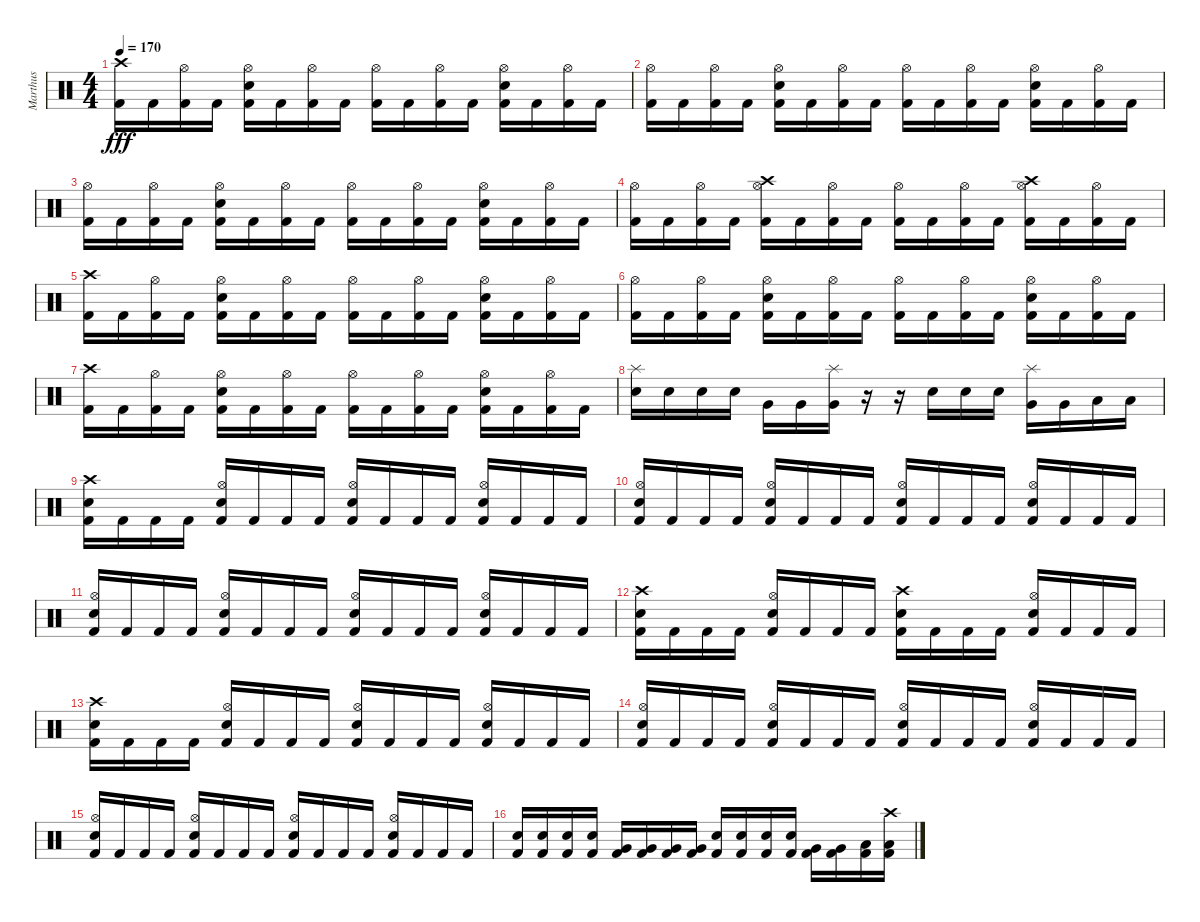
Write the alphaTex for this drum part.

\track ("Marthus" "Marthus") {instrument percussion}
\staff {score}
\articulation defaults
\ts (4 4)
\tempo 170
\clef neutral
\ks c
("Crash high (hit)" "Kick (hit) 2").16{dy fff} "Kick (hit) 2".16 ("Hi-Hat (open)" "Kick (hit) 2").16 "Kick (hit) 2".16 ("Hi-Hat (open)" "Electric Snare (hit)" "Kick (hit) 2").16 "Kick (hit) 2".16 ("Hi-Hat (open)" "Kick (hit) 2").16 "Kick (hit) 2".16 ("Hi-Hat (open)" "Kick (hit) 2").16 "Kick (hit) 2".16 ("Hi-Hat (open)" "Kick (hit) 2").16 "Kick (hit) 2".16 ("Hi-Hat (open)" "Electric Snare (hit)" "Kick (hit) 2").16 "Kick (hit) 2".16 ("Hi-Hat (open)" "Kick (hit) 2").16 "Kick (hit) 2".16 |
("Hi-Hat (open)" "Kick (hit) 2").16 "Kick (hit) 2".16 ("Hi-Hat (open)" "Kick (hit) 2").16 "Kick (hit) 2".16 ("Hi-Hat (open)" "Electric Snare (hit)" "Kick (hit) 2").16 "Kick (hit) 2".16 ("Hi-Hat (open)" "Kick (hit) 2").16 "Kick (hit) 2".16 ("Hi-Hat (open)" "Kick (hit) 2").16 "Kick (hit) 2".16 ("Hi-Hat (open)" "Kick (hit) 2").16 "Kick (hit) 2".16 ("Hi-Hat (open)" "Electric Snare (hit)" "Kick (hit) 2").16 "Kick (hit) 2".16 ("Hi-Hat (open)" "Kick (hit) 2").16 "Kick (hit) 2".16 |
("Hi-Hat (open)" "Kick (hit) 2").16 "Kick (hit) 2".16 ("Hi-Hat (open)" "Kick (hit) 2").16 "Kick (hit) 2".16 ("Hi-Hat (open)" "Electric Snare (hit)" "Kick (hit) 2").16 "Kick (hit) 2".16 ("Hi-Hat (open)" "Kick (hit) 2").16 "Kick (hit) 2".16 ("Hi-Hat (open)" "Kick (hit) 2").16 "Kick (hit) 2".16 ("Hi-Hat (open)" "Kick (hit) 2").16 "Kick (hit) 2".16 ("Hi-Hat (open)" "Electric Snare (hit)" "Kick (hit) 2").16 "Kick (hit) 2".16 ("Hi-Hat (open)" "Kick (hit) 2").16 "Kick (hit) 2".16 |
("Hi-Hat (open)" "Kick (hit) 2").16 "Kick (hit) 2".16 ("Hi-Hat (open)" "Kick (hit) 2").16 "Kick (hit) 2".16 ("Crash high (hit)" "Hi-Hat (open)" "Kick (hit) 2").16 "Kick (hit) 2".16 ("Hi-Hat (open)" "Kick (hit) 2").16 "Kick (hit) 2".16 ("Hi-Hat (open)" "Kick (hit) 2").16 "Kick (hit) 2".16 ("Hi-Hat (open)" "Kick (hit) 2").16 "Kick (hit) 2".16 ("Crash high (hit)" "Hi-Hat (open)" "Kick (hit) 2").16 "Kick (hit) 2".16 ("Hi-Hat (open)" "Kick (hit) 2").16 "Kick (hit) 2".16 |
("Crash high (hit)" "Kick (hit) 2").16 "Kick (hit) 2".16 ("Hi-Hat (open)" "Kick (hit) 2").16 "Kick (hit) 2".16 ("Hi-Hat (open)" "Electric Snare (hit)" "Kick (hit) 2").16 "Kick (hit) 2".16 ("Hi-Hat (open)" "Kick (hit) 2").16 "Kick (hit) 2".16 ("Hi-Hat (open)" "Kick (hit) 2").16 "Kick (hit) 2".16 ("Hi-Hat (open)" "Kick (hit) 2").16 "Kick (hit) 2".16 ("Hi-Hat (open)" "Electric Snare (hit)" "Kick (hit) 2").16 "Kick (hit) 2".16 ("Hi-Hat (open)" "Kick (hit) 2").16 "Kick (hit) 2".16 |
("Hi-Hat (open)" "Kick (hit) 2").16 "Kick (hit) 2".16 ("Hi-Hat (open)" "Kick (hit) 2").16 "Kick (hit) 2".16 ("Hi-Hat (open)" "Electric Snare (hit)" "Kick (hit) 2").16 "Kick (hit) 2".16 ("Hi-Hat (open)" "Kick (hit) 2").16 "Kick (hit) 2".16 ("Hi-Hat (open)" "Kick (hit) 2").16 "Kick (hit) 2".16 ("Hi-Hat (open)" "Kick (hit) 2").16 "Kick (hit) 2".16 ("Hi-Hat (open)" "Electric Snare (hit)" "Kick (hit) 2").16 "Kick (hit) 2".16 ("Hi-Hat (open)" "Kick (hit) 2").16 "Kick (hit) 2".16 |
("Crash high (hit)" "Kick (hit) 2").16 "Kick (hit) 2".16 ("Hi-Hat (open)" "Kick (hit) 2").16 "Kick (hit) 2".16 ("Hi-Hat (open)" "Electric Snare (hit)" "Kick (hit) 2").16 "Kick (hit) 2".16 ("Hi-Hat (open)" "Kick (hit) 2").16 "Kick (hit) 2".16 ("Hi-Hat (open)" "Kick (hit) 2").16 "Kick (hit) 2".16 ("Hi-Hat (open)" "Kick (hit) 2").16 "Kick (hit) 2".16 ("Hi-Hat (open)" "Electric Snare (hit)" "Kick (hit) 2").16 "Kick (hit) 2".16 ("Hi-Hat (open)" "Kick (hit) 2").16 "Kick (hit) 2".16 |
("Splash (hit)" "Electric Snare (hit)").16 "Electric Snare (hit)".16 "Electric Snare (hit)".16 "Electric Snare (hit)".16 "Very Low Tom (hit)".16 "Very Low Tom (hit)".16 ("Splash (hit)" "Very Low Tom (hit)").16 r.16 r.16 "Electric Snare (hit)".16 "Electric Snare (hit)".16 "Electric Snare (hit)".16 ("Splash (hit)" "Very Low Tom (hit)").16 "Very Low Tom (hit)".16 "Low Tom (hit)".16 "Low Tom (hit)".16 |
("Crash high (hit)" "Electric Snare (hit)" "Kick (hit) 2").16 "Kick (hit) 2".16 "Kick (hit) 2".16 "Kick (hit) 2".16 ("Hi-Hat (open)" "Electric Snare (hit)" "Kick (hit) 2").16 "Kick (hit) 2".16 "Kick (hit) 2".16 "Kick (hit) 2".16 ("Hi-Hat (open)" "Electric Snare (hit)" "Kick (hit) 2").16 "Kick (hit) 2".16 "Kick (hit) 2".16 "Kick (hit) 2".16 ("Hi-Hat (open)" "Electric Snare (hit)" "Kick (hit) 2").16 "Kick (hit) 2".16 "Kick (hit) 2".16 "Kick (hit) 2".16 |
("Hi-Hat (open)" "Electric Snare (hit)" "Kick (hit) 2").16 "Kick (hit) 2".16 "Kick (hit) 2".16 "Kick (hit) 2".16 ("Hi-Hat (open)" "Electric Snare (hit)" "Kick (hit) 2").16 "Kick (hit) 2".16 "Kick (hit) 2".16 "Kick (hit) 2".16 ("Hi-Hat (open)" "Electric Snare (hit)" "Kick (hit) 2").16 "Kick (hit) 2".16 "Kick (hit) 2".16 "Kick (hit) 2".16 ("Hi-Hat (open)" "Electric Snare (hit)" "Kick (hit) 2").16 "Kick (hit) 2".16 "Kick (hit) 2".16 "Kick (hit) 2".16 |
("Hi-Hat (open)" "Electric Snare (hit)" "Kick (hit) 2").16 "Kick (hit) 2".16 "Kick (hit) 2".16 "Kick (hit) 2".16 ("Hi-Hat (open)" "Electric Snare (hit)" "Kick (hit) 2").16 "Kick (hit) 2".16 "Kick (hit) 2".16 "Kick (hit) 2".16 ("Hi-Hat (open)" "Electric Snare (hit)" "Kick (hit) 2").16 "Kick (hit) 2".16 "Kick (hit) 2".16 "Kick (hit) 2".16 ("Hi-Hat (open)" "Electric Snare (hit)" "Kick (hit) 2").16 "Kick (hit) 2".16 "Kick (hit) 2".16 "Kick (hit) 2".16 |
("Crash high (hit)" "Electric Snare (hit)" "Kick (hit) 2").16 "Kick (hit) 2".16 "Kick (hit) 2".16 "Kick (hit) 2".16 ("Hi-Hat (open)" "Electric Snare (hit)" "Kick (hit) 2").16 "Kick (hit) 2".16 "Kick (hit) 2".16 "Kick (hit) 2".16 ("Crash high (hit)" "Electric Snare (hit)" "Kick (hit) 2").16 "Kick (hit) 2".16 "Kick (hit) 2".16 "Kick (hit) 2".16 ("Hi-Hat (open)" "Electric Snare (hit)" "Kick (hit) 2").16 "Kick (hit) 2".16 "Kick (hit) 2".16 "Kick (hit) 2".16 |
("Crash high (hit)" "Electric Snare (hit)" "Kick (hit) 2").16 "Kick (hit) 2".16 "Kick (hit) 2".16 "Kick (hit) 2".16 ("Hi-Hat (open)" "Electric Snare (hit)" "Kick (hit) 2").16 "Kick (hit) 2".16 "Kick (hit) 2".16 "Kick (hit) 2".16 ("Hi-Hat (open)" "Electric Snare (hit)" "Kick (hit) 2").16 "Kick (hit) 2".16 "Kick (hit) 2".16 "Kick (hit) 2".16 ("Hi-Hat (open)" "Electric Snare (hit)" "Kick (hit) 2").16 "Kick (hit) 2".16 "Kick (hit) 2".16 "Kick (hit) 2".16 |
("Hi-Hat (open)" "Electric Snare (hit)" "Kick (hit) 2").16 "Kick (hit) 2".16 "Kick (hit) 2".16 "Kick (hit) 2".16 ("Hi-Hat (open)" "Electric Snare (hit)" "Kick (hit) 2").16 "Kick (hit) 2".16 "Kick (hit) 2".16 "Kick (hit) 2".16 ("Hi-Hat (open)" "Electric Snare (hit)" "Kick (hit) 2").16 "Kick (hit) 2".16 "Kick (hit) 2".16 "Kick (hit) 2".16 ("Hi-Hat (open)" "Electric Snare (hit)" "Kick (hit) 2").16 "Kick (hit) 2".16 "Kick (hit) 2".16 "Kick (hit) 2".16 |
("Hi-Hat (open)" "Electric Snare (hit)" "Kick (hit) 2").16 "Kick (hit) 2".16 "Kick (hit) 2".16 "Kick (hit) 2".16 ("Hi-Hat (open)" "Electric Snare (hit)" "Kick (hit) 2").16 "Kick (hit) 2".16 "Kick (hit) 2".16 "Kick (hit) 2".16 ("Hi-Hat (open)" "Electric Snare (hit)" "Kick (hit) 2").16 "Kick (hit) 2".16 "Kick (hit) 2".16 "Kick (hit) 2".16 ("Hi-Hat (open)" "Electric Snare (hit)" "Kick (hit) 2").16 "Kick (hit) 2".16 "Kick (hit) 2".16 "Kick (hit) 2".16 |
("Electric Snare (hit)" "Kick (hit) 2").16 ("Electric Snare (hit)" "Kick (hit) 2").16 ("Electric Snare (hit)" "Kick (hit) 2").16 ("Electric Snare (hit)" "Kick (hit) 2").16 ("Very Low Tom (hit)" "Kick (hit) 2").16 ("Very Low Tom (hit)" "Kick (hit) 2").16 ("Very Low Tom (hit)" "Kick (hit) 2").16 ("Very Low Tom (hit)" "Kick (hit) 2").16 ("Electric Snare (hit)" "Kick (hit) 2").16 ("Electric Snare (hit)" "Kick (hit) 2").16 ("Electric Snare (hit)" "Kick (hit) 2").16 ("Electric Snare (hit)" "Kick (hit) 2").16 ("Very Low Tom (hit)" "Kick (hit) 2").16 ("Very Low Tom (hit)" "Kick (hit) 2").16 ("Low Tom (hit)" "Kick (hit) 2").16 ("Crash high (hit)" "Low Tom (hit)" "Kick (hit) 2").16
